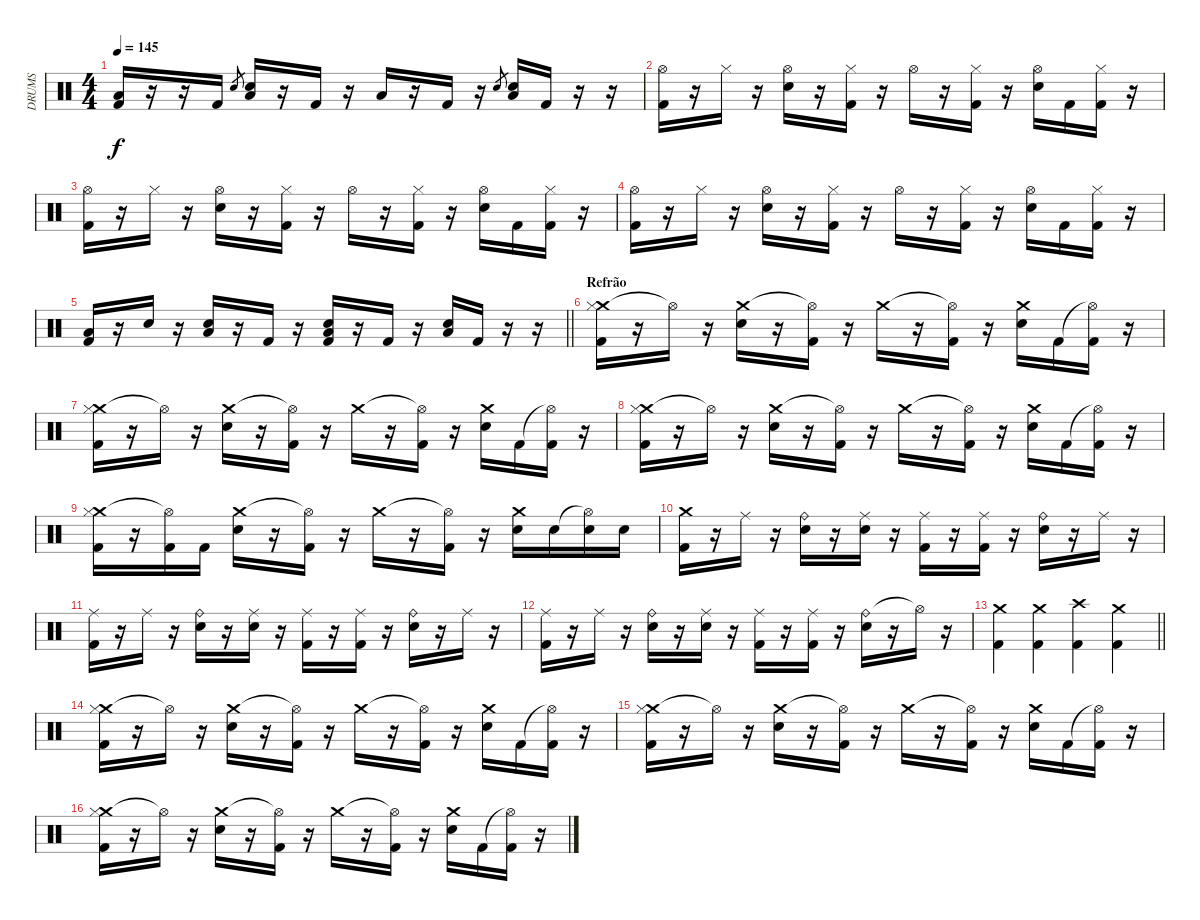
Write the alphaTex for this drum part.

\track ("DRUMS" "DRUMS") {instrument percussion}
\staff {score}
\articulation defaults
\ts (4 4)
\tempo 145
\clef neutral
\ks c
("Low Tom (hit)" "Kick (hit) 2").16{dy f} r.16 r.16 "Kick (hit) 2".16 "Electric Snare (hit)".8{gr} ("Low Tom (hit)" "Electric Snare (hit)").16 r.16 "Kick (hit) 2".16 r.16 "Low Tom (hit)".16 r.16 "Kick (hit) 2".16 r.16 "Electric Snare (hit)".8{gr} ("Low Tom (hit)" "Electric Snare (hit)").16 "Kick (hit) 2".16 r.16 r.16 |
("Hi-Hat (open)" "Kick (hit) 2").16 r.16 "Hi-Hat (closed)".16 r.16 ("Hi-Hat (open)" "Electric Snare (hit)").16 r.16 ("Hi-Hat (closed)" "Kick (hit) 2").16 r.16 "Hi-Hat (open)".16 r.16 ("Hi-Hat (closed)" "Kick (hit) 2").16 r.16 ("Hi-Hat (open)" "Electric Snare (hit)").16 "Kick (hit) 2".16 ("Hi-Hat (closed)" "Kick (hit) 2").16 r.16 |
("Hi-Hat (open)" "Kick (hit) 2").16 r.16 "Hi-Hat (closed)".16 r.16 ("Hi-Hat (open)" "Electric Snare (hit)").16 r.16 ("Hi-Hat (closed)" "Kick (hit) 2").16 r.16 "Hi-Hat (open)".16 r.16 ("Hi-Hat (closed)" "Kick (hit) 2").16 r.16 ("Hi-Hat (open)" "Electric Snare (hit)").16 "Kick (hit) 2".16 ("Hi-Hat (closed)" "Kick (hit) 2").16 r.16 |
("Hi-Hat (open)" "Kick (hit) 2").16 r.16 "Hi-Hat (closed)".16 r.16 ("Hi-Hat (open)" "Electric Snare (hit)").16 r.16 ("Hi-Hat (closed)" "Kick (hit) 2").16 r.16 "Hi-Hat (open)".16 r.16 ("Hi-Hat (closed)" "Kick (hit) 2").16 r.16 ("Hi-Hat (open)" "Electric Snare (hit)").16 "Kick (hit) 2".16 ("Hi-Hat (closed)" "Kick (hit) 2").16 r.16 |
\barLineRight lightlight
("Low Tom (hit)" "Kick (hit) 2").16 r.16 "Electric Snare (hit)".16 r.16 ("Low Tom (hit)" "Electric Snare (hit)").16 r.16 "Kick (hit) 2".16 r.16 ("Low Tom (hit)" "Electric Snare (hit)" "Kick (hit) 2").16 r.16 "Kick (hit) 2".16 r.16 ("Low Tom (hit)" "Electric Snare (hit)").16 "Kick (hit) 2".16 r.16 r.16 |
\section ("" "Refrão")
("Crash medium (hit)" "Hi-Hat (closed)" "Kick (hit) 2").16 r.16 "Hi-Hat (open)"{t}.16 r.16 ("Crash medium (hit)" "Electric Snare (hit)").16 r.16 ("Hi-Hat (open)"{t} "Kick (hit) 2").16 r.16 "Crash medium (hit)".16 r.16 ("Hi-Hat (open)"{t} "Kick (hit) 2").16 r.16 ("Crash medium (hit)" "Electric Snare (hit)").16 "Kick (hit) 2".16 ("Hi-Hat (open)"{t} "Kick (hit) 2").16 r.16 |
("Crash medium (hit)" "Hi-Hat (closed)" "Kick (hit) 2").16 r.16 "Hi-Hat (open)"{t}.16 r.16 ("Crash medium (hit)" "Electric Snare (hit)").16 r.16 ("Hi-Hat (open)"{t} "Kick (hit) 2").16 r.16 "Crash medium (hit)".16 r.16 ("Hi-Hat (open)"{t} "Kick (hit) 2").16 r.16 ("Crash medium (hit)" "Electric Snare (hit)").16 "Kick (hit) 2".16 ("Hi-Hat (open)"{t} "Kick (hit) 2").16 r.16 |
("Crash medium (hit)" "Hi-Hat (closed)" "Kick (hit) 2").16 r.16 "Hi-Hat (open)"{t}.16 r.16 ("Crash medium (hit)" "Electric Snare (hit)").16 r.16 ("Hi-Hat (open)"{t} "Kick (hit) 2").16 r.16 "Crash medium (hit)".16 r.16 ("Hi-Hat (open)"{t} "Kick (hit) 2").16 r.16 ("Crash medium (hit)" "Electric Snare (hit)").16 "Kick (hit) 2".16 ("Hi-Hat (open)"{t} "Kick (hit) 2").16 r.16 |
("Crash medium (hit)" "Hi-Hat (closed)" "Kick (hit) 2").16 r.16 ("Hi-Hat (open)"{t} "Kick (hit) 2").16 "Kick (hit) 2".16 ("Crash medium (hit)" "Electric Snare (hit)").16 r.16 ("Hi-Hat (open)"{t} "Kick (hit) 2").16 r.16 "Crash medium (hit)".16 r.16 ("Hi-Hat (open)"{t} "Kick (hit) 2").16 r.16 ("Crash medium (hit)" "Electric Snare (hit)").16 "Electric Snare (hit)".16 ("Hi-Hat (open)"{t} "Electric Snare (hit)").16 "Electric Snare (hit)".16 |
("Crash medium (hit)" "Kick (hit) 2").16 r.16 "Ride (middle)".16 r.16 ("Ride (bell)" "Electric Snare (hit)").16 r.16 ("Ride (middle)" "Electric Snare (hit)").16 r.16 ("Ride (middle)" "Kick (hit) 2").16 r.16 ("Ride (middle)" "Kick (hit) 2").16 r.16 ("Ride (bell)" "Electric Snare (hit)").16 r.16 "Ride (middle)".16 r.16 |
("Ride (middle)" "Kick (hit) 2").16 r.16 "Ride (middle)".16 r.16 ("Ride (bell)" "Electric Snare (hit)").16 r.16 ("Ride (middle)" "Electric Snare (hit)").16 r.16 ("Ride (middle)" "Kick (hit) 2").16 r.16 ("Ride (middle)" "Kick (hit) 2").16 r.16 ("Ride (bell)" "Electric Snare (hit)").16 r.16 "Ride (middle)".16 r.16 |
("Ride (middle)" "Kick (hit) 2").16 r.16 "Ride (middle)".16 r.16 ("Ride (bell)" "Electric Snare (hit)").16 r.16 ("Ride (middle)" "Electric Snare (hit)").16 r.16 ("Ride (middle)" "Kick (hit) 2").16 r.16 ("Ride (middle)" "Kick (hit) 2").16 r.16 ("Ride (bell)" "Electric Snare (hit)").16 r.16 "Hi-Hat (open)"{t}.16 r.16 |
\barLineRight lightlight
("Crash medium (hit)" "Kick (hit) 2").4 ("Crash medium (hit)" "Kick (hit) 2").4 ("Crash high (hit)" "Kick (hit) 2").4 ("Crash medium (hit)" "Kick (hit) 2").4 |
("Crash medium (hit)" "Hi-Hat (closed)" "Kick (hit) 2").16 r.16 "Hi-Hat (open)"{t}.16 r.16 ("Crash medium (hit)" "Electric Snare (hit)").16 r.16 ("Hi-Hat (open)"{t} "Kick (hit) 2").16 r.16 "Crash medium (hit)".16 r.16 ("Hi-Hat (open)"{t} "Kick (hit) 2").16 r.16 ("Crash medium (hit)" "Electric Snare (hit)").16 "Kick (hit) 2".16 ("Hi-Hat (open)"{t} "Kick (hit) 2").16 r.16 |
("Crash medium (hit)" "Hi-Hat (closed)" "Kick (hit) 2").16 r.16 "Hi-Hat (open)"{t}.16 r.16 ("Crash medium (hit)" "Electric Snare (hit)").16 r.16 ("Hi-Hat (open)"{t} "Kick (hit) 2").16 r.16 "Crash medium (hit)".16 r.16 ("Hi-Hat (open)"{t} "Kick (hit) 2").16 r.16 ("Crash medium (hit)" "Electric Snare (hit)").16 "Kick (hit) 2".16 ("Hi-Hat (open)"{t} "Kick (hit) 2").16 r.16 |
("Crash medium (hit)" "Hi-Hat (closed)" "Kick (hit) 2").16 r.16 "Hi-Hat (open)"{t}.16 r.16 ("Crash medium (hit)" "Electric Snare (hit)").16 r.16 ("Hi-Hat (open)"{t} "Kick (hit) 2").16 r.16 "Crash medium (hit)".16 r.16 ("Hi-Hat (open)"{t} "Kick (hit) 2").16 r.16 ("Crash medium (hit)" "Electric Snare (hit)").16 "Kick (hit) 2".16 ("Hi-Hat (open)"{t} "Kick (hit) 2").16 r.16
